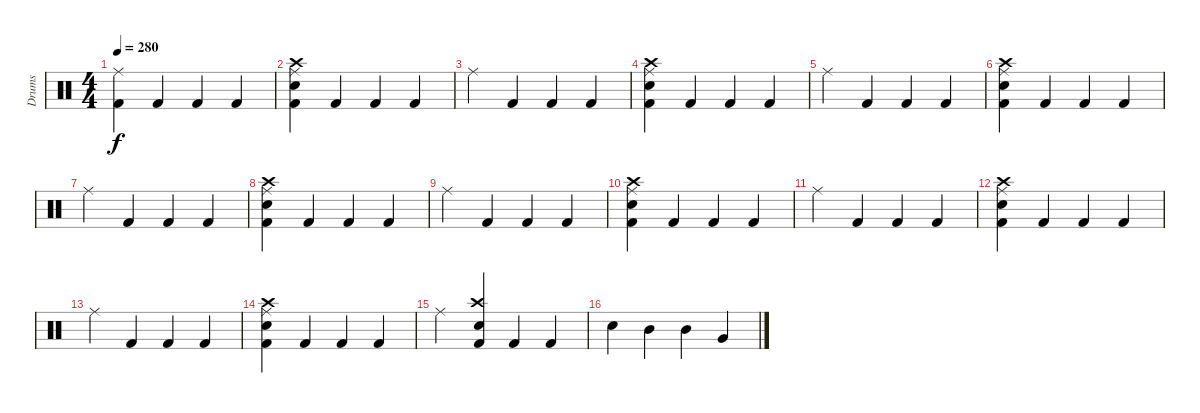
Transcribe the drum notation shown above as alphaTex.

\track ("Drums" "Drums") {instrument percussion}
\staff {score}
\articulation defaults
\ts (4 4)
\tempo 280
\clef neutral
\ks c
("Ride (middle)" "Kick (hit) 2").4{dy f} "Kick (hit) 2".4 "Kick (hit) 2".4 "Kick (hit) 2".4 |
("Ride (middle)" "Crash high (hit)" "Electric Snare (hit)" "Kick (hit) 2").4 "Kick (hit) 2".4 "Kick (hit) 2".4 "Kick (hit) 2".4 |
"Ride (middle)".4 "Kick (hit) 2".4 "Kick (hit) 2".4 "Kick (hit) 2".4 |
("Ride (middle)" "Crash high (hit)" "Electric Snare (hit)" "Kick (hit) 2").4 "Kick (hit) 2".4 "Kick (hit) 2".4 "Kick (hit) 2".4 |
"Ride (middle)".4 "Kick (hit) 2".4 "Kick (hit) 2".4 "Kick (hit) 2".4 |
("Ride (middle)" "Crash high (hit)" "Electric Snare (hit)" "Kick (hit) 2").4 "Kick (hit) 2".4 "Kick (hit) 2".4 "Kick (hit) 2".4 |
"Ride (middle)".4 "Kick (hit) 2".4 "Kick (hit) 2".4 "Kick (hit) 2".4 |
("Ride (middle)" "Crash high (hit)" "Electric Snare (hit)" "Kick (hit) 2").4 "Kick (hit) 2".4 "Kick (hit) 2".4 "Kick (hit) 2".4 |
"Ride (middle)".4 "Kick (hit) 2".4 "Kick (hit) 2".4 "Kick (hit) 2".4 |
("Ride (middle)" "Crash high (hit)" "Electric Snare (hit)" "Kick (hit) 2").4 "Kick (hit) 2".4 "Kick (hit) 2".4 "Kick (hit) 2".4 |
"Ride (middle)".4 "Kick (hit) 2".4 "Kick (hit) 2".4 "Kick (hit) 2".4 |
("Ride (middle)" "Crash high (hit)" "Electric Snare (hit)" "Kick (hit) 2").4 "Kick (hit) 2".4 "Kick (hit) 2".4 "Kick (hit) 2".4 |
"Ride (middle)".4 "Kick (hit) 2".4 "Kick (hit) 2".4 "Kick (hit) 2".4 |
("Ride (middle)" "Crash high (hit)" "Electric Snare (hit)" "Kick (hit) 2").4 "Kick (hit) 2".4 "Kick (hit) 2".4 "Kick (hit) 2".4 |
"Ride (middle)".4 ("Crash high (hit)" "Electric Snare (hit)" "Kick (hit) 2").4 "Kick (hit) 2".4 "Kick (hit) 2".4 |
"Electric Snare (hit)".4 "Mid Tom (hit)".4 "Mid Tom (hit)".4 "Very Low Tom (hit)".4
